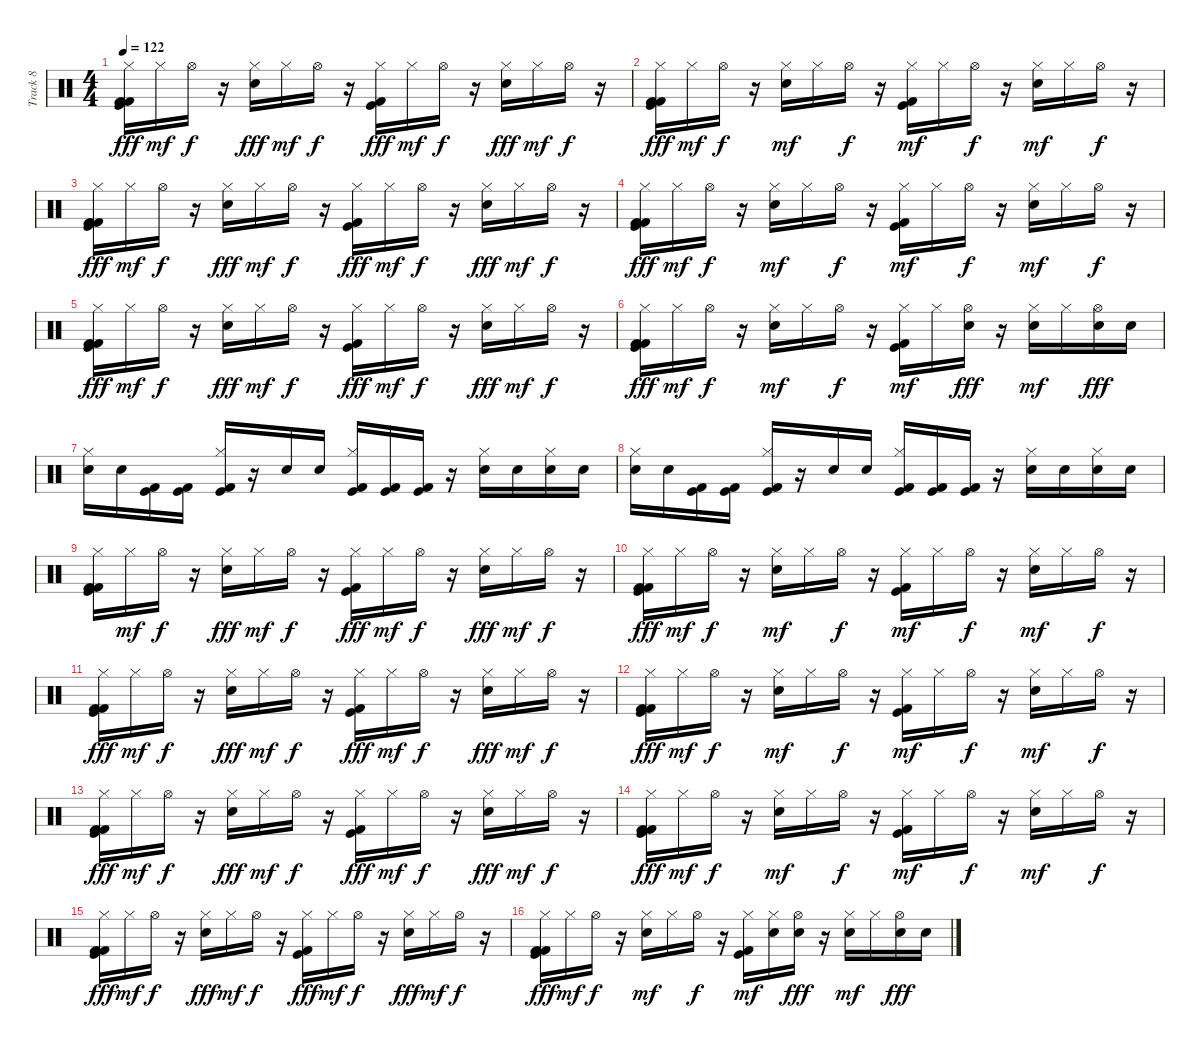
\track ("Track 8" "Track 8") {instrument percussion}
\staff {score}
\articulation defaults
\ts (4 4)
\tempo 122
\clef neutral
\ks c
("Kick (hit) 2" "Hi-Hat (closed)" "Kick (hit) 2" "Kick (hit)").16{dy fff} "Hi-Hat (closed)".16{dy mf} "Hi-Hat (open)".16{dy f} r.16 ("Hi-Hat (closed)" "Electric Snare (hit)").16{dy fff} "Hi-Hat (closed)".16{dy mf} "Hi-Hat (open)".16{dy f} r.16 ("Hi-Hat (closed)" "Kick (hit)" "Kick (hit) 2").16{dy fff} "Hi-Hat (closed)".16{dy mf} "Hi-Hat (open)".16{dy f} r.16 ("Hi-Hat (closed)" "Electric Snare (hit)").16{dy fff} "Hi-Hat (closed)".16{dy mf} "Hi-Hat (open)".16{dy f} r.16 |
("Kick (hit) 2" "Hi-Hat (closed)" "Kick (hit) 2" "Kick (hit)").16{dy fff} "Hi-Hat (closed)".16{dy mf} "Hi-Hat (open)".16{dy f} r.16 ("Electric Snare (hit)" "Hi-Hat (closed)").16{dy mf} "Hi-Hat (closed)".16 "Hi-Hat (open)".16{dy f} r.16 ("Kick (hit) 2" "Kick (hit)" "Hi-Hat (closed)").16{dy mf} "Hi-Hat (closed)".16 "Hi-Hat (open)".16{dy f} r.16 ("Electric Snare (hit)" "Hi-Hat (closed)").16{dy mf} "Hi-Hat (closed)".16 "Hi-Hat (open)".16{dy f} r.16 |
("Kick (hit) 2" "Hi-Hat (closed)" "Kick (hit) 2" "Kick (hit)").16{dy fff} "Hi-Hat (closed)".16{dy mf} "Hi-Hat (open)".16{dy f} r.16 ("Hi-Hat (closed)" "Electric Snare (hit)").16{dy fff} "Hi-Hat (closed)".16{dy mf} "Hi-Hat (open)".16{dy f} r.16 ("Hi-Hat (closed)" "Kick (hit)" "Kick (hit) 2").16{dy fff} "Hi-Hat (closed)".16{dy mf} "Hi-Hat (open)".16{dy f} r.16 ("Hi-Hat (closed)" "Electric Snare (hit)").16{dy fff} "Hi-Hat (closed)".16{dy mf} "Hi-Hat (open)".16{dy f} r.16 |
("Kick (hit) 2" "Hi-Hat (closed)" "Kick (hit) 2" "Kick (hit)").16{dy fff} "Hi-Hat (closed)".16{dy mf} "Hi-Hat (open)".16{dy f} r.16 ("Electric Snare (hit)" "Hi-Hat (closed)").16{dy mf} "Hi-Hat (closed)".16 "Hi-Hat (open)".16{dy f} r.16 ("Kick (hit) 2" "Kick (hit)" "Hi-Hat (closed)").16{dy mf} "Hi-Hat (closed)".16 "Hi-Hat (open)".16{dy f} r.16 ("Electric Snare (hit)" "Hi-Hat (closed)").16{dy mf} "Hi-Hat (closed)".16 "Hi-Hat (open)".16{dy f} r.16 |
("Kick (hit) 2" "Hi-Hat (closed)" "Kick (hit) 2" "Kick (hit)").16{dy fff} "Hi-Hat (closed)".16{dy mf} "Hi-Hat (open)".16{dy f} r.16 ("Hi-Hat (closed)" "Electric Snare (hit)").16{dy fff} "Hi-Hat (closed)".16{dy mf} "Hi-Hat (open)".16{dy f} r.16 ("Hi-Hat (closed)" "Kick (hit)" "Kick (hit) 2").16{dy fff} "Hi-Hat (closed)".16{dy mf} "Hi-Hat (open)".16{dy f} r.16 ("Hi-Hat (closed)" "Electric Snare (hit)").16{dy fff} "Hi-Hat (closed)".16{dy mf} "Hi-Hat (open)".16{dy f} r.16 |
("Kick (hit) 2" "Hi-Hat (closed)" "Kick (hit) 2" "Kick (hit)").16{dy fff} "Hi-Hat (closed)".16{dy mf} "Hi-Hat (open)".16{dy f} r.16 ("Electric Snare (hit)" "Hi-Hat (closed)").16{dy mf} "Hi-Hat (closed)".16 "Hi-Hat (open)".16{dy f} r.16 ("Kick (hit) 2" "Kick (hit)" "Hi-Hat (closed)").16{dy mf} "Hi-Hat (closed)".16 ("Electric Snare (hit)" "Hi-Hat (open)").16{dy fff} r.16 ("Electric Snare (hit)" "Hi-Hat (closed)").16{dy mf} "Hi-Hat (closed)".16 ("Electric Snare (hit)" "Hi-Hat (open)").16{dy fff} "Electric Snare (hit)".16 |
("Hi-Hat (closed)" "Electric Snare (hit)").16 "Electric Snare (hit)".16 ("Kick (hit)" "Kick (hit) 2").16 ("Kick (hit) 2" "Kick (hit)").16 ("Hi-Hat (closed)" "Kick (hit) 2" "Kick (hit)").16 r.16 "Electric Snare (hit)".16 "Electric Snare (hit)".16 ("Hi-Hat (closed)" "Kick (hit)" "Kick (hit) 2").16 ("Kick (hit) 2" "Kick (hit)").16 ("Kick (hit) 2" "Kick (hit)").16 r.16 ("Hi-Hat (closed)" "Electric Snare (hit)").16 "Electric Snare (hit)".16 ("Hi-Hat (closed)" "Electric Snare (hit)").16 "Electric Snare (hit)".16 |
("Hi-Hat (closed)" "Electric Snare (hit)").16 "Electric Snare (hit)".16 ("Kick (hit) 2" "Kick (hit)").16 ("Kick (hit)" "Kick (hit) 2").16 ("Kick (hit)" "Kick (hit) 2" "Hi-Hat (closed)").16 r.16 "Electric Snare (hit)".16 "Electric Snare (hit)".16 ("Kick (hit) 2" "Kick (hit)" "Hi-Hat (closed)").16 ("Kick (hit)" "Kick (hit) 2").16 ("Kick (hit)" "Kick (hit) 2").16 r.16 ("Electric Snare (hit)" "Hi-Hat (closed)").16 "Electric Snare (hit)".16 ("Electric Snare (hit)" "Hi-Hat (closed)").16 "Electric Snare (hit)".16 |
("Kick (hit) 2" "Hi-Hat (closed)" "Kick (hit)" "Kick (hit) 2").16 "Hi-Hat (closed)".16{dy mf} "Hi-Hat (open)".16{dy f} r.16 ("Hi-Hat (closed)" "Electric Snare (hit)").16{dy fff} "Hi-Hat (closed)".16{dy mf} "Hi-Hat (open)".16{dy f} r.16 ("Hi-Hat (closed)" "Kick (hit)" "Kick (hit) 2").16{dy fff} "Hi-Hat (closed)".16{dy mf} "Hi-Hat (open)".16{dy f} r.16 ("Hi-Hat (closed)" "Electric Snare (hit)").16{dy fff} "Hi-Hat (closed)".16{dy mf} "Hi-Hat (open)".16{dy f} r.16 |
("Kick (hit) 2" "Hi-Hat (closed)" "Kick (hit) 2" "Kick (hit)").16{dy fff} "Hi-Hat (closed)".16{dy mf} "Hi-Hat (open)".16{dy f} r.16 ("Electric Snare (hit)" "Hi-Hat (closed)").16{dy mf} "Hi-Hat (closed)".16 "Hi-Hat (open)".16{dy f} r.16 ("Kick (hit) 2" "Kick (hit)" "Hi-Hat (closed)").16{dy mf} "Hi-Hat (closed)".16 "Hi-Hat (open)".16{dy f} r.16 ("Electric Snare (hit)" "Hi-Hat (closed)").16{dy mf} "Hi-Hat (closed)".16 "Hi-Hat (open)".16{dy f} r.16 |
("Kick (hit) 2" "Hi-Hat (closed)" "Kick (hit) 2" "Kick (hit)").16{dy fff} "Hi-Hat (closed)".16{dy mf} "Hi-Hat (open)".16{dy f} r.16 ("Hi-Hat (closed)" "Electric Snare (hit)").16{dy fff} "Hi-Hat (closed)".16{dy mf} "Hi-Hat (open)".16{dy f} r.16 ("Hi-Hat (closed)" "Kick (hit)" "Kick (hit) 2").16{dy fff} "Hi-Hat (closed)".16{dy mf} "Hi-Hat (open)".16{dy f} r.16 ("Hi-Hat (closed)" "Electric Snare (hit)").16{dy fff} "Hi-Hat (closed)".16{dy mf} "Hi-Hat (open)".16{dy f} r.16 |
("Kick (hit) 2" "Hi-Hat (closed)" "Kick (hit) 2" "Kick (hit)").16{dy fff} "Hi-Hat (closed)".16{dy mf} "Hi-Hat (open)".16{dy f} r.16 ("Electric Snare (hit)" "Hi-Hat (closed)").16{dy mf} "Hi-Hat (closed)".16 "Hi-Hat (open)".16{dy f} r.16 ("Kick (hit) 2" "Kick (hit)" "Hi-Hat (closed)").16{dy mf} "Hi-Hat (closed)".16 "Hi-Hat (open)".16{dy f} r.16 ("Electric Snare (hit)" "Hi-Hat (closed)").16{dy mf} "Hi-Hat (closed)".16 "Hi-Hat (open)".16{dy f} r.16 |
("Kick (hit) 2" "Hi-Hat (closed)" "Kick (hit) 2" "Kick (hit)").16{dy fff} "Hi-Hat (closed)".16{dy mf} "Hi-Hat (open)".16{dy f} r.16 ("Hi-Hat (closed)" "Electric Snare (hit)").16{dy fff} "Hi-Hat (closed)".16{dy mf} "Hi-Hat (open)".16{dy f} r.16 ("Hi-Hat (closed)" "Kick (hit)" "Kick (hit) 2").16{dy fff} "Hi-Hat (closed)".16{dy mf} "Hi-Hat (open)".16{dy f} r.16 ("Hi-Hat (closed)" "Electric Snare (hit)").16{dy fff} "Hi-Hat (closed)".16{dy mf} "Hi-Hat (open)".16{dy f} r.16 |
("Kick (hit) 2" "Hi-Hat (closed)" "Kick (hit) 2" "Kick (hit)").16{dy fff} "Hi-Hat (closed)".16{dy mf} "Hi-Hat (open)".16{dy f} r.16 ("Electric Snare (hit)" "Hi-Hat (closed)").16{dy mf} "Hi-Hat (closed)".16 "Hi-Hat (open)".16{dy f} r.16 ("Kick (hit) 2" "Kick (hit)" "Hi-Hat (closed)").16{dy mf} "Hi-Hat (closed)".16 "Hi-Hat (open)".16{dy f} r.16 ("Electric Snare (hit)" "Hi-Hat (closed)").16{dy mf} "Hi-Hat (closed)".16 "Hi-Hat (open)".16{dy f} r.16 |
("Kick (hit) 2" "Hi-Hat (closed)" "Kick (hit) 2" "Kick (hit)").16{dy fff} "Hi-Hat (closed)".16{dy mf} "Hi-Hat (open)".16{dy f} r.16 ("Hi-Hat (closed)" "Electric Snare (hit)").16{dy fff} "Hi-Hat (closed)".16{dy mf} "Hi-Hat (open)".16{dy f} r.16 ("Hi-Hat (closed)" "Kick (hit)" "Kick (hit) 2").16{dy fff} "Hi-Hat (closed)".16{dy mf} "Hi-Hat (open)".16{dy f} r.16 ("Hi-Hat (closed)" "Electric Snare (hit)").16{dy fff} "Hi-Hat (closed)".16{dy mf} "Hi-Hat (open)".16{dy f} r.16 |
("Kick (hit) 2" "Hi-Hat (closed)" "Kick (hit) 2" "Kick (hit)").16{dy fff} "Hi-Hat (closed)".16{dy mf} "Hi-Hat (open)".16{dy f} r.16 ("Electric Snare (hit)" "Hi-Hat (closed)").16{dy mf} "Hi-Hat (closed)".16 "Hi-Hat (open)".16{dy f} r.16 ("Kick (hit) 2" "Kick (hit)" "Hi-Hat (closed)").16{dy mf} ("Electric Snare (hit)" "Hi-Hat (closed)").16 ("Electric Snare (hit)" "Hi-Hat (open)").16{dy fff} r.16 ("Electric Snare (hit)" "Hi-Hat (closed)").16{dy mf} "Hi-Hat (closed)".16 ("Electric Snare (hit)" "Hi-Hat (open)").16{dy fff} "Electric Snare (hit)".16
